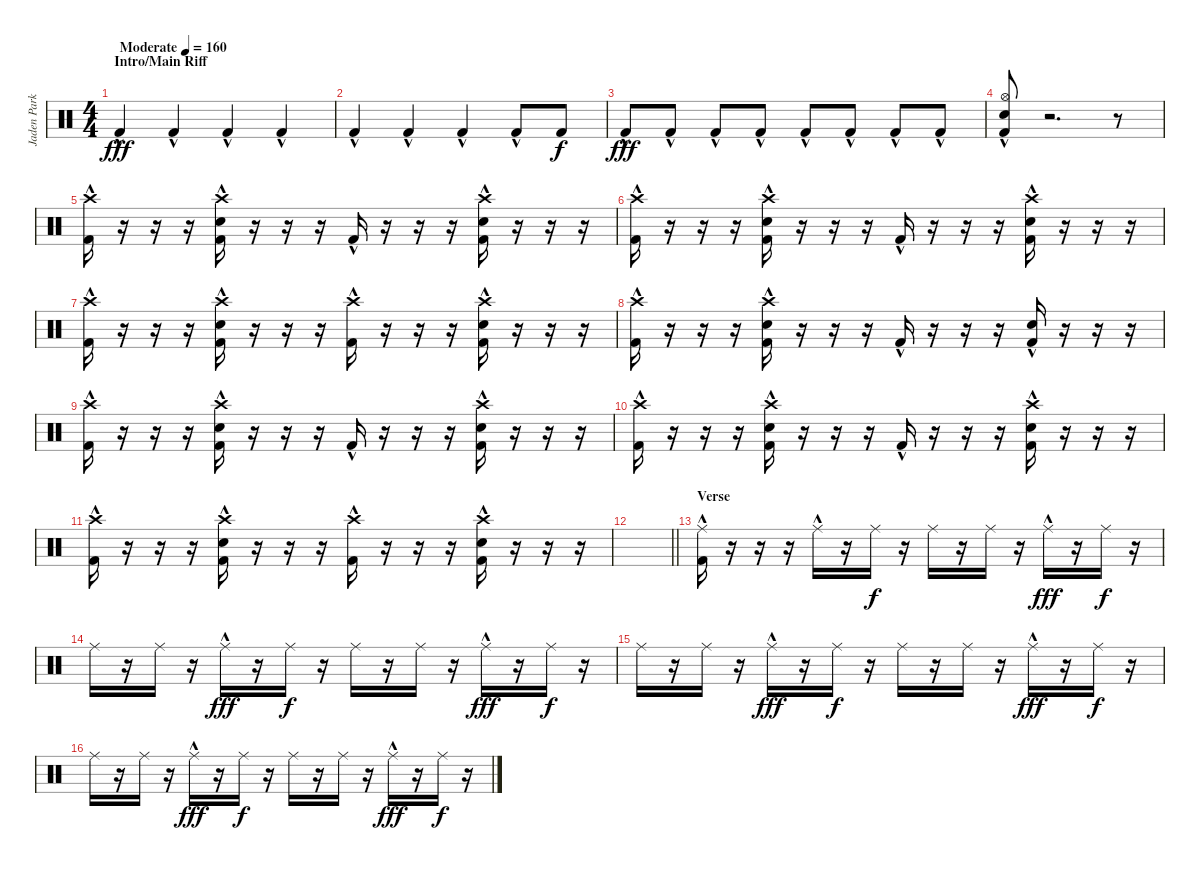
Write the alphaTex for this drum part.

\track ("Jaden Parkes" "Jaden Park") {instrument percussion}
\staff {score}
\articulation defaults
\ts (4 4)
\section ("" "Intro/Main Riff")
\tempo (160 "Moderate")
\clef neutral
\ks c "Kick (hit) 2"{hac}.4{dy fff} "Kick (hit) 2"{hac}.4 "Kick (hit) 2"{hac}.4 "Kick (hit) 2"{hac}.4
|
"Kick (hit) 2"{hac}.4 "Kick (hit) 2"{hac}.4 "Kick (hit) 2"{hac}.4 "Kick (hit) 2"{hac}.8 "Kick (hit) 2".8{dy f} |
"Kick (hit) 2"{hac}.8{dy fff} "Kick (hit) 2"{hac}.8 "Kick (hit) 2"{hac}.8 "Kick (hit) 2"{hac}.8 "Kick (hit) 2"{hac}.8 "Kick (hit) 2"{hac}.8 "Kick (hit) 2"{hac}.8 "Kick (hit) 2"{hac}.8 |
("Hi-Hat (open)"{hac} "Electric Snare (hit)"{hac} "Kick (hit) 2"{hac}).8{volume 16} r.2{d} r.8 |
("Crash high (hit)" "Kick (hit) 2"{hac}).16 r.16 r.16 r.16 ("Crash high (hit)"{hac} "Electric Snare (hit)" "Kick (hit) 2"{hac}).16 r.16 r.16 r.16 "Kick (hit) 2"{hac}.16 r.16 r.16 r.16 ("Crash high (hit)"{hac} "Electric Snare (hit)" "Kick (hit) 2"{hac}).16 r.16 r.16 r.16 |
("Crash high (hit)" "Kick (hit) 2"{hac}).16 r.16 r.16 r.16 ("Crash high (hit)"{hac} "Electric Snare (hit)" "Kick (hit) 2"{hac}).16 r.16 r.16 r.16 "Kick (hit) 2"{hac}.16 r.16 r.16 r.16 ("Crash high (hit)"{hac} "Electric Snare (hit)" "Kick (hit) 2"{hac}).16 r.16 r.16 r.16 |
("Crash high (hit)" "Kick (hit) 2"{hac}).16 r.16 r.16 r.16 ("Crash high (hit)"{hac} "Electric Snare (hit)" "Kick (hit) 2"{hac}).16 r.16 r.16 r.16 ("Crash high (hit)" "Kick (hit) 2"{hac}).16 r.16 r.16 r.16 ("Crash high (hit)"{hac} "Electric Snare (hit)" "Kick (hit) 2"{hac}).16 r.16 r.16 r.16 |
("Crash high (hit)" "Kick (hit) 2"{hac}).16 r.16 r.16 r.16 ("Crash high (hit)"{hac} "Electric Snare (hit)" "Kick (hit) 2"{hac}).16 r.16 r.16 r.16 "Kick (hit) 2"{hac}.16 r.16 r.16 r.16 ("Electric Snare (hit)" "Kick (hit) 2"{hac}).16 r.16 r.16 r.16 |
("Crash high (hit)" "Kick (hit) 2"{hac}).16 r.16 r.16 r.16 ("Crash high (hit)"{hac} "Electric Snare (hit)" "Kick (hit) 2"{hac}).16 r.16 r.16 r.16 "Kick (hit) 2"{hac}.16 r.16 r.16 r.16 ("Crash high (hit)"{hac} "Electric Snare (hit)" "Kick (hit) 2"{hac}).16 r.16 r.16 r.16 |
("Crash high (hit)" "Kick (hit) 2"{hac}).16 r.16 r.16 r.16 ("Crash high (hit)"{hac} "Electric Snare (hit)" "Kick (hit) 2"{hac}).16 r.16 r.16 r.16 "Kick (hit) 2"{hac}.16 r.16 r.16 r.16 ("Crash high (hit)"{hac} "Electric Snare (hit)" "Kick (hit) 2"{hac}).16 r.16 r.16 r.16 |
("Crash high (hit)" "Kick (hit) 2"{hac}).16 r.16 r.16 r.16 ("Crash high (hit)"{hac} "Electric Snare (hit)" "Kick (hit) 2"{hac}).16 r.16 r.16 r.16 ("Crash high (hit)" "Kick (hit) 2"{hac}).16 r.16 r.16 r.16 ("Crash high (hit)"{hac} "Electric Snare (hit)" "Kick (hit) 2"{hac}).16 r.16 r.16 r.16 |
\barLineRight lightlight
|
\section ("" "Verse")
("Ride (middle)" "Kick (hit) 2"{hac}).16{volume 8} r.16 r.16 r.16 "Ride (middle)"{hac}.16 r.16 "Ride (middle)".16{dy f} r.16 "Ride (middle)".16 r.16 "Ride (middle)".16 r.16 "Ride (middle)"{hac}.16{dy fff} r.16 "Ride (middle)".16{dy f} r.16 |
"Ride (middle)".16 r.16 "Ride (middle)".16 r.16 "Ride (middle)"{hac}.16{dy fff} r.16 "Ride (middle)".16{dy f} r.16 "Ride (middle)".16 r.16 "Ride (middle)".16 r.16 "Ride (middle)"{hac}.16{dy fff} r.16 "Ride (middle)".16{dy f} r.16 |
"Ride (middle)".16 r.16 "Ride (middle)".16 r.16 "Ride (middle)"{hac}.16{dy fff} r.16 "Ride (middle)".16{dy f} r.16 "Ride (middle)".16 r.16 "Ride (middle)".16 r.16 "Ride (middle)"{hac}.16{dy fff} r.16 "Ride (middle)".16{dy f} r.16 |
"Ride (middle)".16 r.16 "Ride (middle)".16 r.16 "Ride (middle)"{hac}.16{dy fff} r.16 "Ride (middle)".16{dy f} r.16 "Ride (middle)".16 r.16 "Ride (middle)".16 r.16 "Ride (middle)"{hac}.16{dy fff} r.16 "Ride (middle)".16{dy f} r.16
